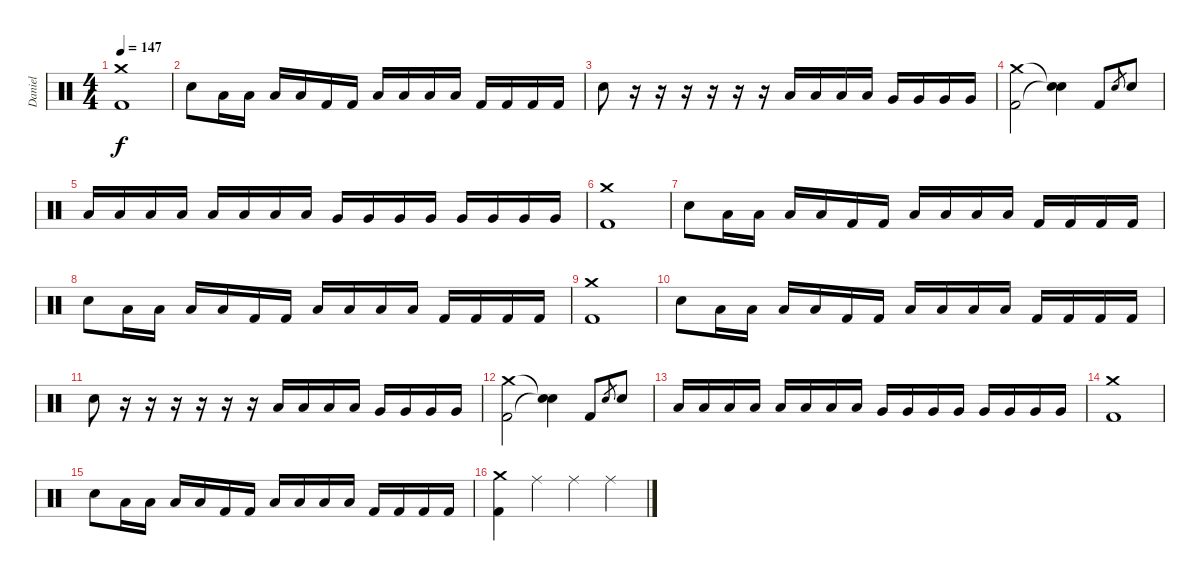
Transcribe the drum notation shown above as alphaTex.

\track ("Daniel" "Daniel") {instrument percussion}
\staff {score}
\articulation defaults
\ts (4 4)
\tempo 147
\clef neutral
\ks c
("Crash medium (hit)" "Kick (hit) 2").1{dy f} |
"Electric Snare (hit)".8 "Low Tom (hit)".16 "Low Tom (hit)".16 "Low Tom (hit)".16 "Low Tom (hit)".16 "Kick (hit) 2".16 "Kick (hit) 2".16 "Low Tom (hit)".16 "Low Tom (hit)".16 "Low Tom (hit)".16 "Low Tom (hit)".16 "Kick (hit) 2".16 "Kick (hit) 2".16 "Kick (hit) 2".16 "Kick (hit) 2".16 |
"Electric Snare (hit)".8 r.16 r.16 r.16 r.16 r.16 r.16 "Low Tom (hit)".16 "Low Tom (hit)".16 "Low Tom (hit)".16 "Low Tom (hit)".16 "Very Low Tom (hit)".16 "Very Low Tom (hit)".16 "Very Low Tom (hit)".16 "Very Low Tom (hit)".16 |
("Crash medium (hit)" "Kick (hit) 2").2 ("Snare (hit)"{t} "Snare (hit)"{t}).4 "Kick (hit) 2".8 "Electric Snare (hit)".8{gr} "Electric Snare (hit)".8 |
"Low Tom (hit)".16 "Low Tom (hit)".16 "Low Tom (hit)".16 "Low Tom (hit)".16 "Low Tom (hit)".16 "Low Tom (hit)".16 "Low Tom (hit)".16 "Low Tom (hit)".16 "Very Low Tom (hit)".16 "Very Low Tom (hit)".16 "Very Low Tom (hit)".16 "Very Low Tom (hit)".16 "Very Low Tom (hit)".16 "Very Low Tom (hit)".16 "Very Low Tom (hit)".16 "Very Low Tom (hit)".16 |
("Crash medium (hit)" "Kick (hit) 2").1 |
"Electric Snare (hit)".8 "Low Tom (hit)".16 "Low Tom (hit)".16 "Low Tom (hit)".16 "Low Tom (hit)".16 "Kick (hit) 2".16 "Kick (hit) 2".16 "Low Tom (hit)".16 "Low Tom (hit)".16 "Low Tom (hit)".16 "Low Tom (hit)".16 "Kick (hit) 2".16 "Kick (hit) 2".16 "Kick (hit) 2".16 "Kick (hit) 2".16 |
"Electric Snare (hit)".8 "Low Tom (hit)".16 "Low Tom (hit)".16 "Low Tom (hit)".16 "Low Tom (hit)".16 "Kick (hit) 2".16 "Kick (hit) 2".16 "Low Tom (hit)".16 "Low Tom (hit)".16 "Low Tom (hit)".16 "Low Tom (hit)".16 "Kick (hit) 2".16 "Kick (hit) 2".16 "Kick (hit) 2".16 "Kick (hit) 2".16 |
("Crash medium (hit)" "Kick (hit) 2").1 |
"Electric Snare (hit)".8 "Low Tom (hit)".16 "Low Tom (hit)".16 "Low Tom (hit)".16 "Low Tom (hit)".16 "Kick (hit) 2".16 "Kick (hit) 2".16 "Low Tom (hit)".16 "Low Tom (hit)".16 "Low Tom (hit)".16 "Low Tom (hit)".16 "Kick (hit) 2".16 "Kick (hit) 2".16 "Kick (hit) 2".16 "Kick (hit) 2".16 |
"Electric Snare (hit)".8 r.16 r.16 r.16 r.16 r.16 r.16 "Low Tom (hit)".16 "Low Tom (hit)".16 "Low Tom (hit)".16 "Low Tom (hit)".16 "Very Low Tom (hit)".16 "Very Low Tom (hit)".16 "Very Low Tom (hit)".16 "Very Low Tom (hit)".16 |
("Crash medium (hit)" "Kick (hit) 2").2 ("Snare (hit)"{t} "Snare (hit)"{t}).4 "Kick (hit) 2".8 "Electric Snare (hit)".8{gr} "Electric Snare (hit)".8 |
"Low Tom (hit)".16 "Low Tom (hit)".16 "Low Tom (hit)".16 "Low Tom (hit)".16 "Low Tom (hit)".16 "Low Tom (hit)".16 "Low Tom (hit)".16 "Low Tom (hit)".16 "Very Low Tom (hit)".16 "Very Low Tom (hit)".16 "Very Low Tom (hit)".16 "Very Low Tom (hit)".16 "Very Low Tom (hit)".16 "Very Low Tom (hit)".16 "Very Low Tom (hit)".16 "Very Low Tom (hit)".16 |
("Crash medium (hit)" "Kick (hit) 2").1 |
"Electric Snare (hit)".8 "Low Tom (hit)".16 "Low Tom (hit)".16 "Low Tom (hit)".16 "Low Tom (hit)".16 "Kick (hit) 2".16 "Kick (hit) 2".16 "Low Tom (hit)".16 "Low Tom (hit)".16 "Low Tom (hit)".16 "Low Tom (hit)".16 "Kick (hit) 2".16 "Kick (hit) 2".16 "Kick (hit) 2".16 "Kick (hit) 2".16 |
("Crash medium (hit)" "Kick (hit) 2").4 "Ride (middle)".4 "Ride (middle)".4 "Ride (middle)".4
